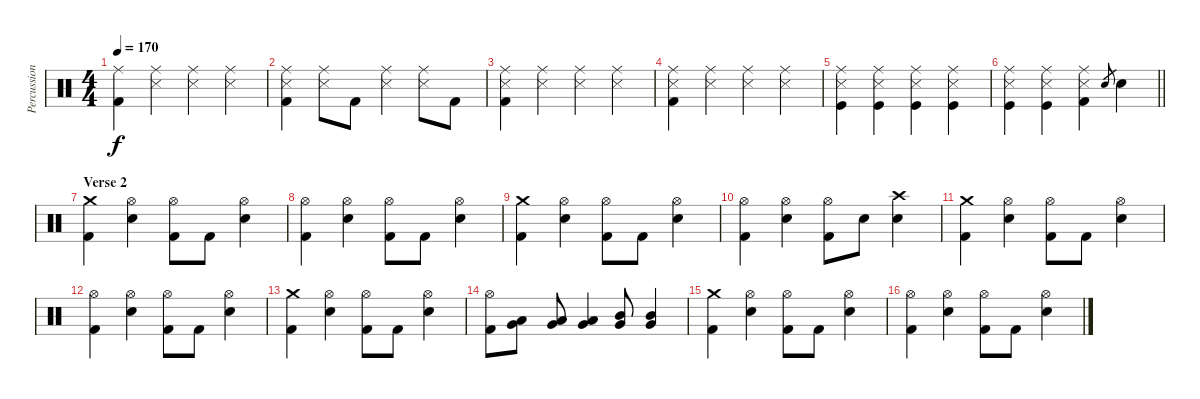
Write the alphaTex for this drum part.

\track ("Percussions" "Percussion") {instrument percussion}
\staff {score}
\articulation defaults
\ts (4 4)
\tempo 170
\clef neutral
\ks c
("Ride (middle)" "Kick (hit) 2").4{dy f} ("Ride (middle)" "Snare (side stick) 3").4 ("Ride (middle)" "Snare (side stick) 3").4 ("Ride (middle)" "Snare (side stick) 3").4 |
("Ride (middle)" "Snare (side stick) 3" "Kick (hit) 2").4 ("Ride (middle)" "Snare (side stick) 3").8 "Kick (hit) 2".8 ("Ride (middle)" "Snare (side stick) 3").4 ("Ride (middle)" "Snare (side stick) 3").8 "Kick (hit) 2".8 |
("Ride (middle)" "Snare (side stick) 3" "Kick (hit) 2").4 ("Ride (middle)" "Snare (side stick) 3").4 ("Ride (middle)" "Snare (side stick) 3").4 ("Ride (middle)" "Snare (side stick) 3").4 |
("Ride (middle)" "Snare (side stick) 3" "Kick (hit) 2").4 ("Ride (middle)" "Snare (side stick) 3").4 ("Ride (middle)" "Snare (side stick) 3").4 ("Ride (middle)" "Snare (side stick) 3").4 |
("Ride (middle)" "Snare (side stick) 3" "Kick (hit)").4 ("Ride (middle)" "Snare (side stick) 3" "Kick (hit)").4 ("Ride (middle)" "Snare (side stick) 3" "Kick (hit)").4 ("Ride (middle)" "Snare (side stick) 3" "Kick (hit)").4 |
\barLineRight lightlight
("Ride (middle)" "Snare (side stick) 3" "Kick (hit)").4 ("Ride (middle)" "Snare (side stick) 3" "Kick (hit)").4 ("Ride (middle)" "Snare (side stick) 3" "Kick (hit) 2").4 "Electric Snare (hit)".8{gr} "Electric Snare (hit)".4 |
\section ("" "Verse 2")
("Crash medium (hit)" "Kick (hit) 2").4 ("Hi-Hat (open)" "Electric Snare (hit)").4 ("Hi-Hat (open)" "Kick (hit) 2").8 "Kick (hit) 2".8 ("Hi-Hat (open)" "Electric Snare (hit)").4 |
("Hi-Hat (open)" "Kick (hit) 2").4 ("Hi-Hat (open)" "Electric Snare (hit)").4 ("Hi-Hat (open)" "Kick (hit) 2").8 "Kick (hit) 2".8 ("Hi-Hat (open)" "Electric Snare (hit)").4 |
("Crash medium (hit)" "Kick (hit) 2").4 ("Hi-Hat (open)" "Electric Snare (hit)").4 ("Hi-Hat (open)" "Kick (hit) 2").8 "Kick (hit) 2".8 ("Hi-Hat (open)" "Electric Snare (hit)").4 |
("Hi-Hat (open)" "Kick (hit) 2").4 ("Hi-Hat (open)" "Electric Snare (hit)").4 ("Hi-Hat (open)" "Kick (hit) 2").8 "Electric Snare (hit)".8 ("Crash high (hit)" "Electric Snare (hit)").4 |
("Crash medium (hit)" "Kick (hit) 2").4 ("Hi-Hat (open)" "Electric Snare (hit)").4 ("Hi-Hat (open)" "Kick (hit) 2").8 "Kick (hit) 2".8 ("Hi-Hat (open)" "Electric Snare (hit)").4 |
("Hi-Hat (open)" "Kick (hit) 2").4 ("Hi-Hat (open)" "Electric Snare (hit)").4 ("Hi-Hat (open)" "Kick (hit) 2").8 "Kick (hit) 2".8 ("Hi-Hat (open)" "Electric Snare (hit)").4 |
("Crash medium (hit)" "Kick (hit) 2").4 ("Hi-Hat (open)" "Electric Snare (hit)").4 ("Hi-Hat (open)" "Kick (hit) 2").8 "Kick (hit) 2".8 ("Hi-Hat (open)" "Electric Snare (hit)").4 |
("Hi-Hat (open)" "Kick (hit) 2").8 ("Low Tom (hit)" "Very Low Tom (hit)").8 ("Low Tom (hit)" "Very Low Tom (hit)").8 ("Low Tom (hit)" "Very Low Tom (hit)").4 ("Mid Tom (hit)" "Very Low Tom (hit)").8 ("Mid Tom (hit)" "Very Low Tom (hit)").4 |
("Crash medium (hit)" "Kick (hit) 2").4 ("Hi-Hat (open)" "Electric Snare (hit)").4 ("Hi-Hat (open)" "Kick (hit) 2").8 "Kick (hit) 2".8 ("Hi-Hat (open)" "Electric Snare (hit)").4 |
("Hi-Hat (open)" "Kick (hit) 2").4 ("Hi-Hat (open)" "Electric Snare (hit)").4 ("Hi-Hat (open)" "Kick (hit) 2").8 "Kick (hit) 2".8 ("Hi-Hat (open)" "Electric Snare (hit)").4
